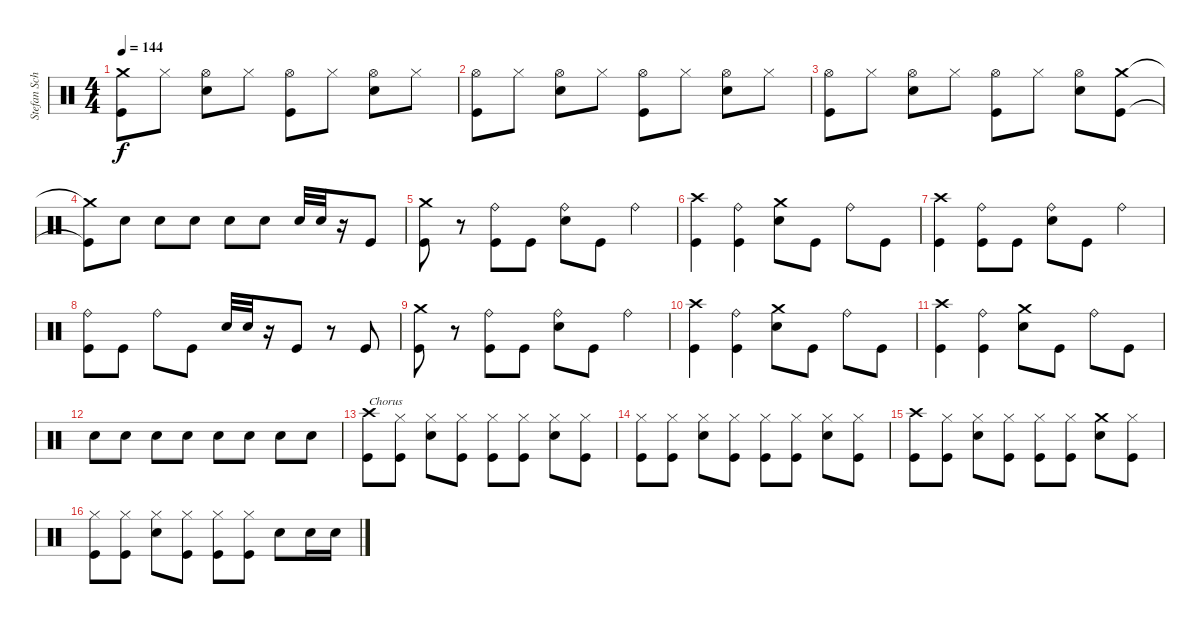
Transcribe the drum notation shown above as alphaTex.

\track ("Stefan Schwarzmann" "Stefan Sch") {instrument percussion}
\staff {score}
\articulation defaults
\ts (4 4)
\tempo 144
\clef neutral
\ks c
("Kick (hit)"{t} "Crash medium (hit)"{t}).8{dy f} "Hi-Hat (closed)".8 ("Snare (hit) 2" "Hi-Hat (open)").8 "Hi-Hat (closed)".8 ("Kick (hit)" "Hi-Hat (open)").8 "Hi-Hat (closed)".8 ("Snare (hit) 2" "Hi-Hat (open)").8 "Hi-Hat (closed)".8 |
("Kick (hit)" "Hi-Hat (open)").8 "Hi-Hat (closed)".8 ("Snare (hit) 2" "Hi-Hat (open)").8 "Hi-Hat (closed)".8 ("Kick (hit)" "Hi-Hat (open)").8 "Hi-Hat (closed)".8 ("Snare (hit) 2" "Hi-Hat (open)").8 "Hi-Hat (closed)".8 |
("Kick (hit)" "Hi-Hat (open)").8 "Hi-Hat (closed)".8 ("Snare (hit) 2" "Hi-Hat (open)").8 "Hi-Hat (closed)".8 ("Kick (hit)" "Hi-Hat (open)").8 "Hi-Hat (closed)".8 ("Snare (hit) 2" "Hi-Hat (open)").8 ("Crash medium (hit)" "Kick (hit)").8 |
("Crash medium (hit)"{t} "Kick (hit)"{t}).8 "Snare (hit) 2".8 "Snare (hit) 2".8 "Snare (hit) 2".8 "Snare (hit) 2".8 "Snare (hit) 2".8 "Snare (hit) 2".32 "Snare (hit) 2".32 r.16 "Kick (hit)".8 |
("Kick (hit)" "Crash medium (hit)").8 r.8 ("Kick (hit)" "Ride (bell)").8 "Kick (hit)".8 ("Snare (hit) 2" "Ride (bell)").8 "Kick (hit)".8 "Ride (bell)".4 |
("Kick (hit)" "Crash high (hit)").4 ("Kick (hit)" "Ride (bell)").4 ("Snare (hit) 2" "Crash medium (hit)").8 "Kick (hit)".8 "Ride (bell)".8 "Kick (hit)".8 |
("Kick (hit)" "Crash high (hit)").4 ("Kick (hit)" "Ride (bell)").8 "Kick (hit)".8 ("Snare (hit) 2" "Ride (bell)").8 "Kick (hit)".8 "Ride (bell)".4 |
("Kick (hit)" "Ride (bell)").8 "Kick (hit)".8 "Ride (bell)".8 "Kick (hit)".8 "Snare (hit) 2".32 "Snare (hit) 2".32 r.16 "Kick (hit)".8 r.8 "Kick (hit)".8 |
("Kick (hit)" "Crash medium (hit)").8 r.8 ("Kick (hit)" "Ride (bell)").8 "Kick (hit)".8 ("Snare (hit) 2" "Ride (bell)").8 "Kick (hit)".8 "Ride (bell)".4 |
("Kick (hit)" "Crash high (hit)").4 ("Kick (hit)" "Ride (bell)").4 ("Snare (hit) 2" "Crash medium (hit)").8 "Kick (hit)".8 "Ride (bell)".8 "Kick (hit)".8 |
("Kick (hit)" "Crash high (hit)").4 ("Kick (hit)" "Ride (bell)").4 ("Snare (hit) 2" "Crash medium (hit)").8 "Kick (hit)".8 "Ride (bell)".8 "Kick (hit)".8 |
"Snare (hit) 2".8 "Snare (hit) 2".8 "Snare (hit) 2".8 "Snare (hit) 2".8 "Snare (hit) 2".8 "Snare (hit) 2".8 "Snare (hit) 2".8 "Snare (hit) 2".8 |
("Kick (hit)" "Crash high (hit)").8{txt "Chorus"} ("Kick (hit)" "Hi-Hat (closed)").8 ("Snare (hit) 2" "Hi-Hat (closed)").8 ("Kick (hit)" "Hi-Hat (closed)").8 ("Kick (hit)" "Hi-Hat (closed)").8 ("Kick (hit)" "Hi-Hat (closed)").8 ("Snare (hit) 2" "Hi-Hat (closed)").8 ("Kick (hit)" "Hi-Hat (closed)").8 |
("Kick (hit)" "Hi-Hat (closed)").8 ("Kick (hit)" "Hi-Hat (closed)").8 ("Snare (hit) 2" "Hi-Hat (closed)").8 ("Kick (hit)" "Hi-Hat (closed)").8 ("Kick (hit)" "Hi-Hat (closed)").8 ("Kick (hit)" "Hi-Hat (closed)").8 ("Snare (hit) 2" "Hi-Hat (closed)").8 ("Kick (hit)" "Hi-Hat (closed)").8 |
("Kick (hit)" "Crash high (hit)").8 ("Kick (hit)" "Hi-Hat (closed)").8 ("Snare (hit) 2" "Hi-Hat (closed)").8 ("Kick (hit)" "Hi-Hat (closed)").8 ("Kick (hit)" "Hi-Hat (closed)").8 ("Kick (hit)" "Hi-Hat (closed)").8 ("Snare (hit) 2" "Crash medium (hit)").8 ("Kick (hit)" "Hi-Hat (closed)").8 |
("Kick (hit)" "Hi-Hat (closed)").8 ("Kick (hit)" "Hi-Hat (closed)").8 ("Snare (hit) 2" "Hi-Hat (closed)").8 ("Kick (hit)" "Hi-Hat (closed)").8 ("Kick (hit)" "Hi-Hat (closed)").8 ("Kick (hit)" "Hi-Hat (closed)").8 "Snare (hit) 2".8 "Snare (hit) 2".16 "Snare (hit) 2".16
